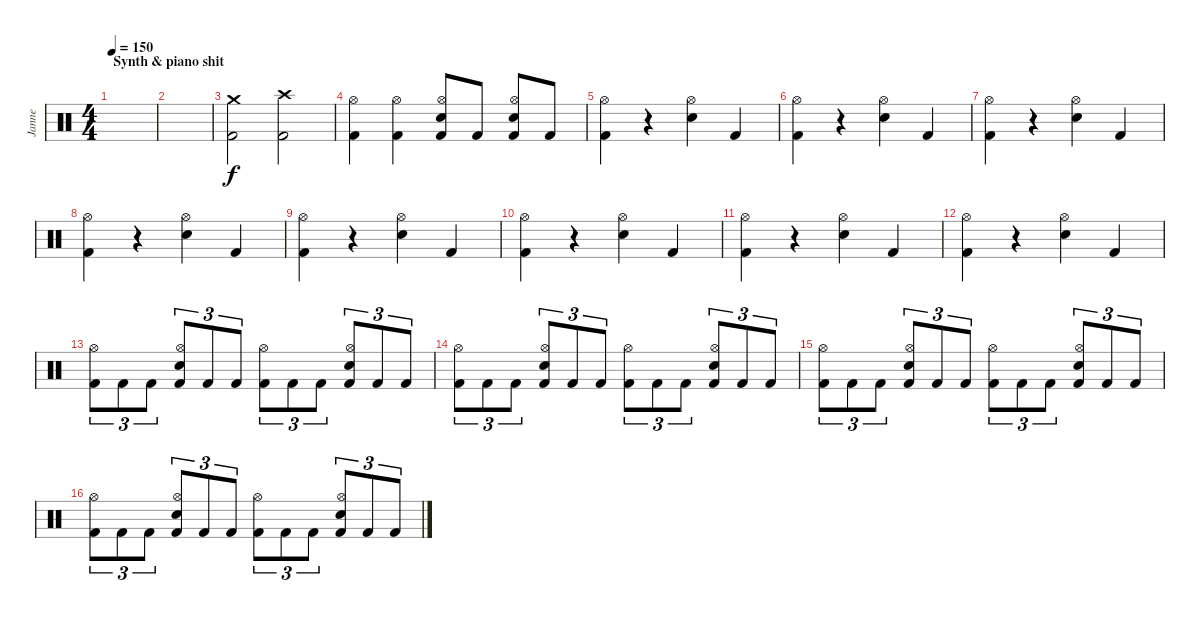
\track ("Janne" "Janne") {instrument percussion}
\staff {score}
\articulation defaults
\ts (4 4)
\section ("" "Synth & piano shit")
\tempo 150
\clef neutral
\ks c
|
|
("Crash medium (hit)" "Kick (hit) 2").2{dy f} ("Crash high (hit)" "Kick (hit) 2").2 |
("Hi-Hat (open)" "Kick (hit) 2").4 ("Hi-Hat (open)" "Kick (hit) 2").4 ("Hi-Hat (open)" "Electric Snare (hit)" "Kick (hit) 2").8 "Kick (hit) 2".8 ("Hi-Hat (open)" "Electric Snare (hit)" "Kick (hit) 2").8 "Kick (hit) 2".8 |
("Hi-Hat (open)" "Kick (hit) 2").4 r.4 ("Hi-Hat (open)" "Electric Snare (hit)").4 "Kick (hit) 2".4 |
("Hi-Hat (open)" "Kick (hit) 2").4 r.4 ("Hi-Hat (open)" "Electric Snare (hit)").4 "Kick (hit) 2".4 |
("Hi-Hat (open)" "Kick (hit) 2").4 r.4 ("Hi-Hat (open)" "Electric Snare (hit)").4 "Kick (hit) 2".4 |
("Hi-Hat (open)" "Kick (hit) 2").4 r.4 ("Hi-Hat (open)" "Electric Snare (hit)").4 "Kick (hit) 2".4 |
("Hi-Hat (open)" "Kick (hit) 2").4 r.4 ("Hi-Hat (open)" "Electric Snare (hit)").4 "Kick (hit) 2".4 |
("Hi-Hat (open)" "Kick (hit) 2").4 r.4 ("Hi-Hat (open)" "Electric Snare (hit)").4 "Kick (hit) 2".4 |
("Hi-Hat (open)" "Kick (hit) 2").4 r.4 ("Hi-Hat (open)" "Electric Snare (hit)").4 "Kick (hit) 2".4 |
("Hi-Hat (open)" "Kick (hit) 2").4 r.4 ("Hi-Hat (open)" "Electric Snare (hit)").4 "Kick (hit) 2".4 |
("Hi-Hat (open)" "Kick (hit) 2").8{tu (3 2)} "Kick (hit) 2".8{tu (3 2)} "Kick (hit) 2".8{tu (3 2)} ("Hi-Hat (open)" "Electric Snare (hit)" "Kick (hit) 2").8{tu (3 2)} "Kick (hit) 2".8{tu (3 2)} "Kick (hit) 2".8{tu (3 2)} ("Hi-Hat (open)" "Kick (hit) 2").8{tu (3 2)} "Kick (hit) 2".8{tu (3 2)} "Kick (hit) 2".8{tu (3 2)} ("Hi-Hat (open)" "Electric Snare (hit)" "Kick (hit) 2").8{tu (3 2)} "Kick (hit) 2".8{tu (3 2)} "Kick (hit) 2".8{tu (3 2)} |
("Hi-Hat (open)" "Kick (hit) 2").8{tu (3 2)} "Kick (hit) 2".8{tu (3 2)} "Kick (hit) 2".8{tu (3 2)} ("Hi-Hat (open)" "Electric Snare (hit)" "Kick (hit) 2").8{tu (3 2)} "Kick (hit) 2".8{tu (3 2)} "Kick (hit) 2".8{tu (3 2)} ("Hi-Hat (open)" "Kick (hit) 2").8{tu (3 2)} "Kick (hit) 2".8{tu (3 2)} "Kick (hit) 2".8{tu (3 2)} ("Hi-Hat (open)" "Electric Snare (hit)" "Kick (hit) 2").8{tu (3 2)} "Kick (hit) 2".8{tu (3 2)} "Kick (hit) 2".8{tu (3 2)} |
("Hi-Hat (open)" "Kick (hit) 2").8{tu (3 2)} "Kick (hit) 2".8{tu (3 2)} "Kick (hit) 2".8{tu (3 2)} ("Hi-Hat (open)" "Electric Snare (hit)" "Kick (hit) 2").8{tu (3 2)} "Kick (hit) 2".8{tu (3 2)} "Kick (hit) 2".8{tu (3 2)} ("Hi-Hat (open)" "Kick (hit) 2").8{tu (3 2)} "Kick (hit) 2".8{tu (3 2)} "Kick (hit) 2".8{tu (3 2)} ("Hi-Hat (open)" "Electric Snare (hit)" "Kick (hit) 2").8{tu (3 2)} "Kick (hit) 2".8{tu (3 2)} "Kick (hit) 2".8{tu (3 2)} |
("Hi-Hat (open)" "Kick (hit) 2").8{tu (3 2)} "Kick (hit) 2".8{tu (3 2)} "Kick (hit) 2".8{tu (3 2)} ("Hi-Hat (open)" "Electric Snare (hit)" "Kick (hit) 2").8{tu (3 2)} "Kick (hit) 2".8{tu (3 2)} "Kick (hit) 2".8{tu (3 2)} ("Hi-Hat (open)" "Kick (hit) 2").8{tu (3 2)} "Kick (hit) 2".8{tu (3 2)} "Kick (hit) 2".8{tu (3 2)} ("Hi-Hat (open)" "Electric Snare (hit)" "Kick (hit) 2").8{tu (3 2)} "Kick (hit) 2".8{tu (3 2)} "Kick (hit) 2".8{tu (3 2)}
